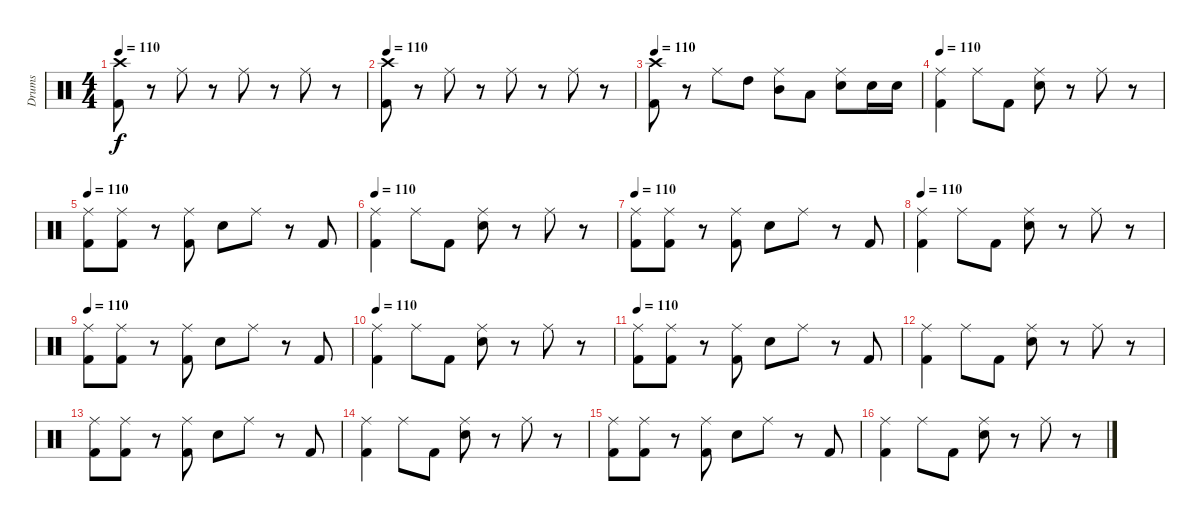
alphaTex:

\track ("Drums" "Drums") {instrument percussion}
\staff {score}
\articulation defaults
\ts (4 4)
\tempo 110
\clef neutral
\ks c
("Kick (hit) 2" "Crash high (hit)").8{dy f} r.8 "Ride (middle)".8 r.8 "Ride (middle)".8 r.8 "Ride (middle)".8 r.8 |
\tempo 110
("Kick (hit) 2" "Crash high (hit)").8 r.8 "Ride (middle)".8 r.8 "Ride (middle)".8 r.8 "Ride (middle)".8 r.8 |
\tempo 110
("Kick (hit) 2" "Crash high (hit)").8 r.8 "Ride (middle)".8 "High Tom (hit)".8 ("Ride (middle)" "Mid Tom (hit)").8 "Low Tom (hit)".8 ("Ride (middle)" "Electric Snare (hit)").8 "Electric Snare (hit)".16 "Electric Snare (hit)".16 |
\tempo 110
("Ride (middle)" "Kick (hit) 2").4 "Ride (middle)".8 "Kick (hit) 2".8 ("Ride (middle)" "Electric Snare (hit)").8 r.8 "Ride (middle)".8 r.8 |
\tempo 110
("Ride (middle)" "Kick (hit) 2").8 ("Ride (middle)" "Kick (hit) 2").8 r.8 ("Ride (middle)" "Kick (hit) 2").8 "Electric Snare (hit)".8 "Ride (middle)".8 r.8 "Kick (hit) 2".8 |
\tempo 110
("Ride (middle)" "Kick (hit) 2").4 "Ride (middle)".8 "Kick (hit) 2".8 ("Ride (middle)" "Electric Snare (hit)").8 r.8 "Ride (middle)".8 r.8 |
\tempo 110
("Ride (middle)" "Kick (hit) 2").8 ("Ride (middle)" "Kick (hit) 2").8 r.8 ("Ride (middle)" "Kick (hit) 2").8 "Electric Snare (hit)".8 "Ride (middle)".8 r.8 "Kick (hit) 2".8 |
\tempo 110
("Ride (middle)" "Kick (hit) 2").4 "Ride (middle)".8 "Kick (hit) 2".8 ("Ride (middle)" "Electric Snare (hit)").8 r.8 "Ride (middle)".8 r.8 |
\tempo 110
("Ride (middle)" "Kick (hit) 2").8 ("Ride (middle)" "Kick (hit) 2").8 r.8 ("Ride (middle)" "Kick (hit) 2").8 "Electric Snare (hit)".8 "Ride (middle)".8 r.8 "Kick (hit) 2".8 |
\tempo 110
("Ride (middle)" "Kick (hit) 2").4 "Ride (middle)".8 "Kick (hit) 2".8 ("Ride (middle)" "Electric Snare (hit)").8 r.8 "Ride (middle)".8 r.8 |
\tempo 110
("Ride (middle)" "Kick (hit) 2").8 ("Ride (middle)" "Kick (hit) 2").8 r.8 ("Ride (middle)" "Kick (hit) 2").8 "Electric Snare (hit)".8 "Ride (middle)".8 r.8 "Kick (hit) 2".8 |
("Ride (middle)" "Kick (hit) 2").4 "Ride (middle)".8 "Kick (hit) 2".8 ("Ride (middle)" "Electric Snare (hit)").8 r.8 "Ride (middle)".8 r.8 |
("Ride (middle)" "Kick (hit) 2").8 ("Ride (middle)" "Kick (hit) 2").8 r.8 ("Ride (middle)" "Kick (hit) 2").8 "Electric Snare (hit)".8 "Ride (middle)".8 r.8 "Kick (hit) 2".8 |
("Ride (middle)" "Kick (hit) 2").4 "Ride (middle)".8 "Kick (hit) 2".8 ("Ride (middle)" "Electric Snare (hit)").8 r.8 "Ride (middle)".8 r.8 |
("Ride (middle)" "Kick (hit) 2").8 ("Ride (middle)" "Kick (hit) 2").8 r.8 ("Ride (middle)" "Kick (hit) 2").8 "Electric Snare (hit)".8 "Ride (middle)".8 r.8 "Kick (hit) 2".8 |
("Ride (middle)" "Kick (hit) 2").4 "Ride (middle)".8 "Kick (hit) 2".8 ("Ride (middle)" "Electric Snare (hit)").8 r.8 "Ride (middle)".8 r.8
